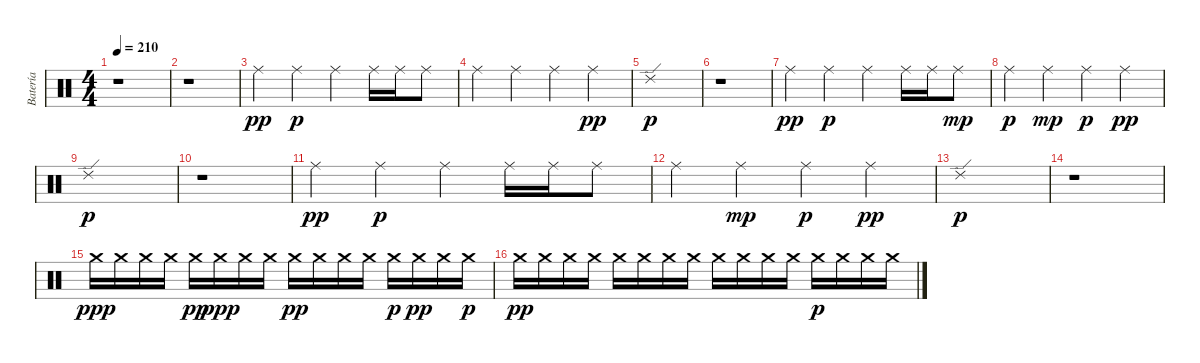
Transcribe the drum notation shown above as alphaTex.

\track ("Batería" "Batería") {instrument percussion}
\staff {score}
\articulation defaults
\ts (4 4)
\tempo 210
\tempo 200
\tempo 210
\clef neutral
\ks c
r.1{dy pp} |
r.1 |
"Ride (middle)".4 "Ride (middle)".4{dy p} "Ride (middle)".4 "Ride (middle)".16 "Ride (middle)".16 "Ride (middle)".8 |
"Ride (middle)".4 "Ride (middle)".4 "Ride (middle)".4 "Ride (middle)".4{dy pp} |
"Ride (edge) 2".1{dy p} |
r.1 |
"Ride (middle)".4{dy pp} "Ride (middle)".4{dy p} "Ride (middle)".4 "Ride (middle)".16 "Ride (middle)".16 "Ride (middle)".8{dy mp} |
"Ride (middle)".4{dy p} "Ride (middle)".4{dy mp} "Ride (middle)".4{dy p} "Ride (middle)".4{dy pp} |
"Ride (edge) 2".1{dy p} |
r.1 |
"Ride (middle)".4{dy pp} "Ride (middle)".4{dy p} "Ride (middle)".4 "Ride (middle)".16 "Ride (middle)".16 "Ride (middle)".8 |
"Ride (middle)".4 "Ride (middle)".4{dy mp} "Ride (middle)".4{dy p} "Ride (middle)".4{dy pp} |
"Ride (edge) 2".1{dy p} |
r.1 |
"Crash medium (hit)".16{dy ppp} "Crash medium (hit)".16 "Crash medium (hit)".16 "Crash medium (hit)".16 "Crash medium (hit)".16{dy pp} "Crash medium (hit)".16{dy ppp} "Crash medium (hit)".16 "Crash medium (hit)".16 "Crash medium (hit)".16{dy pp} "Crash medium (hit)".16 "Crash medium (hit)".16 "Crash medium (hit)".16 "Crash medium (hit)".16{dy p} "Crash medium (hit)".16{dy pp} "Crash medium (hit)".16 "Crash medium (hit)".16{dy p} |
"Crash medium (hit)".16{dy pp} "Crash medium (hit)".16 "Crash medium (hit)".16 "Crash medium (hit)".16 "Crash medium (hit)".16 "Crash medium (hit)".16 "Crash medium (hit)".16 "Crash medium (hit)".16 "Crash medium (hit)".16 "Crash medium (hit)".16 "Crash medium (hit)".16 "Crash medium (hit)".16 "Crash medium (hit)".16{dy p} "Crash medium (hit)".16 "Crash medium (hit)".16 "Crash medium (hit)".16
